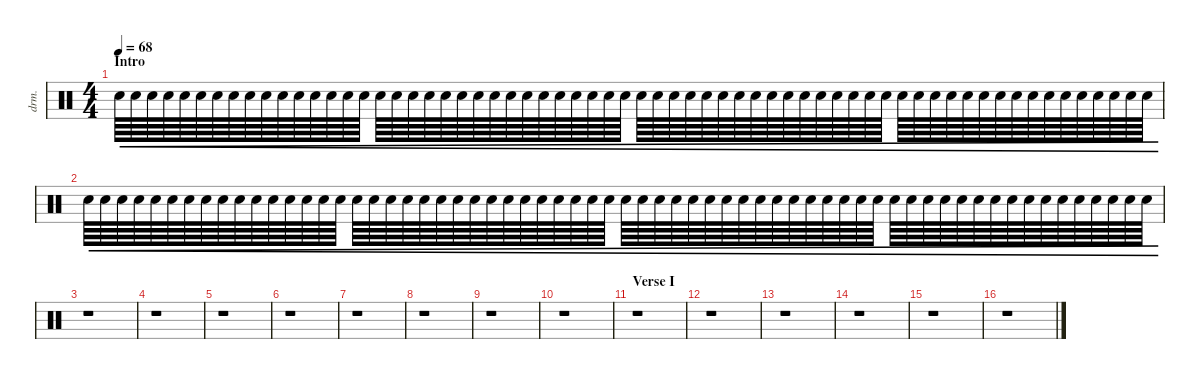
\defaultSystemsLayout 4
\hideDynamics
\bracketExtendMode nobrackets
\otherSystemsTrackNameOrientation horizontal
\track ("Intro drums" "drm.") {defaultSystemsLayout 4 instrument percussion}
\staff {score}
\articulation defaults
\ts (4 4)
\section ("" "Intro")
\tempo 68
\clef neutral
\ks c "Snare (hit) 2".64{cre dy ppp beam Down} "Snare (hit) 2".64{cre beam Down} "Snare (hit) 2".64{cre beam Down} "Snare (hit) 2".64{cre beam Down} "Snare (hit) 2".64{cre beam Down} "Snare (hit) 2".64{cre beam Down} "Snare (hit) 2".64{cre beam Down} "Snare (hit) 2".64{cre beam Down} "Snare (hit) 2".64{cre beam Down} "Snare (hit) 2".64{cre beam Down} "Snare (hit) 2".64{cre beam Down} "Snare (hit) 2".64{cre beam Down} "Snare (hit) 2".64{cre beam Down} "Snare (hit) 2".64{cre beam Down} "Snare (hit) 2".64{cre beam Down} "Snare (hit) 2".64{cre beam Down} "Snare (hit) 2".64{cre beam Down} "Snare (hit) 2".64{cre beam Down} "Snare (hit) 2".64{cre beam Down} "Snare (hit) 2".64{cre beam Down} "Snare (hit) 2".64{cre beam Down} "Snare (hit) 2".64{cre beam Down} "Snare (hit) 2".64{cre beam Down} "Snare (hit) 2".64{cre beam Down} "Snare (hit) 2".64{cre beam Down} "Snare (hit) 2".64{cre beam Down} "Snare (hit) 2".64{cre beam Down} "Snare (hit) 2".64{cre beam Down} "Snare (hit) 2".64{cre beam Down} "Snare (hit) 2".64{cre beam Down} "Snare (hit) 2".64{cre beam Down} "Snare (hit) 2".64{cre beam Down} "Snare (hit) 2".64{cre beam Down} "Snare (hit) 2".64{cre beam Down} "Snare (hit) 2".64{cre beam Down} "Snare (hit) 2".64{cre beam Down} "Snare (hit) 2".64{cre beam Down} "Snare (hit) 2".64{cre beam Down} "Snare (hit) 2".64{cre beam Down} "Snare (hit) 2".64{cre beam Down} "Snare (hit) 2".64{cre beam Down} "Snare (hit) 2".64{cre beam Down} "Snare (hit) 2".64{cre beam Down} "Snare (hit) 2".64{cre beam Down} "Snare (hit) 2".64{cre beam Down} "Snare (hit) 2".64{cre beam Down} "Snare (hit) 2".64{cre beam Down} "Snare (hit) 2".64{cre beam Down} "Snare (hit) 2".64{cre beam Down} "Snare (hit) 2".64{cre beam Down} "Snare (hit) 2".64{cre beam Down} "Snare (hit) 2".64{cre beam Down} "Snare (hit) 2".64{cre beam Down} "Snare (hit) 2".64{cre beam Down} "Snare (hit) 2".64{cre beam Down} "Snare (hit) 2".64{cre beam Down} "Snare (hit) 2".64{cre beam Down} "Snare (hit) 2".64{cre beam Down} "Snare (hit) 2".64{cre beam Down} "Snare (hit) 2".64{cre beam Down} "Snare (hit) 2".64{cre beam Down} "Snare (hit) 2".64{cre beam Down} "Snare (hit) 2".64{cre beam Down} "Snare (hit) 2".64{cre beam Down}
|
"Snare (hit) 2".64{cre beam Down} "Snare (hit) 2".64{cre beam Down} "Snare (hit) 2".64{cre beam Down} "Snare (hit) 2".64{cre beam Down} "Snare (hit) 2".64{cre beam Down} "Snare (hit) 2".64{cre beam Down} "Snare (hit) 2".64{cre beam Down} "Snare (hit) 2".64{cre beam Down} "Snare (hit) 2".64{cre beam Down} "Snare (hit) 2".64{cre beam Down} "Snare (hit) 2".64{cre beam Down} "Snare (hit) 2".64{cre beam Down} "Snare (hit) 2".64{cre beam Down} "Snare (hit) 2".64{cre beam Down} "Snare (hit) 2".64{cre beam Down} "Snare (hit) 2".64{cre beam Down} "Snare (hit) 2".64{cre beam Down} "Snare (hit) 2".64{cre beam Down} "Snare (hit) 2".64{cre beam Down} "Snare (hit) 2".64{cre beam Down} "Snare (hit) 2".64{cre beam Down} "Snare (hit) 2".64{cre beam Down} "Snare (hit) 2".64{cre beam Down} "Snare (hit) 2".64{cre beam Down} "Snare (hit) 2".64{cre beam Down} "Snare (hit) 2".64{cre beam Down} "Snare (hit) 2".64{cre beam Down} "Snare (hit) 2".64{cre beam Down} "Snare (hit) 2".64{cre beam Down} "Snare (hit) 2".64{cre beam Down} "Snare (hit) 2".64{cre beam Down} "Snare (hit) 2".64{cre beam Down} "Snare (hit) 2".64{cre beam Down} "Snare (hit) 2".64{cre beam Down} "Snare (hit) 2".64{cre beam Down} "Snare (hit) 2".64{cre beam Down} "Snare (hit) 2".64{cre beam Down} "Snare (hit) 2".64{cre beam Down} "Snare (hit) 2".64{cre beam Down} "Snare (hit) 2".64{cre beam Down} "Snare (hit) 2".64{cre beam Down} "Snare (hit) 2".64{cre beam Down} "Snare (hit) 2".64{cre beam Down} "Snare (hit) 2".64{cre beam Down} "Snare (hit) 2".64{cre beam Down} "Snare (hit) 2".64{cre beam Down} "Snare (hit) 2".64{cre beam Down} "Snare (hit) 2".64{cre beam Down} "Snare (hit) 2".64{cre beam Down} "Snare (hit) 2".64{cre beam Down} "Snare (hit) 2".64{cre beam Down} "Snare (hit) 2".64{cre beam Down} "Snare (hit) 2".64{cre beam Down} "Snare (hit) 2".64{cre beam Down} "Snare (hit) 2".64{cre beam Down} "Snare (hit) 2".64{cre beam Down} "Snare (hit) 2".64{cre beam Down} "Snare (hit) 2".64{cre beam Down} "Snare (hit) 2".64{cre beam Down} "Snare (hit) 2".64{cre beam Down} "Snare (hit) 2".64{cre beam Down} "Snare (hit) 2".64{cre beam Down} "Snare (hit) 2".64{cre beam Down} "Snare (hit) 2".64{cre beam Down} |
r.1{beam Down} |
r.1{beam Down} |
r.1{beam Down} |
r.1{beam Down} |
r.1{beam Down} |
r.1{beam Down} |
r.1{beam Down} |
r.1{beam Down} |
\section ("" "Verse I")
r.1{beam Down} |
r.1{beam Down} |
r.1{beam Down} |
r.1{beam Down} |
r.1{beam Down} |
r.1{beam Down}
